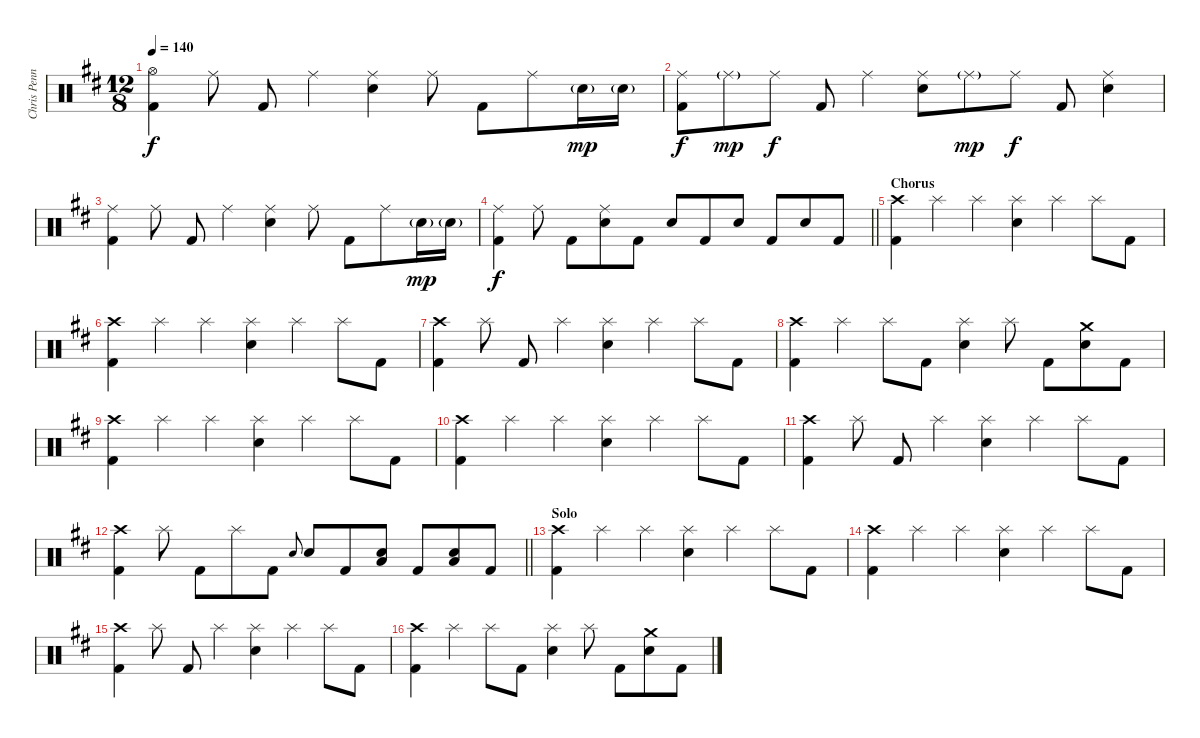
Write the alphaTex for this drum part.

\track ("Chris Pennie/Taylor Hawkins - Drums" "Chris Penn") {instrument percussion}
\staff {score}
\articulation defaults
\ts (12 8)
\tempo 140
\clef neutral
\ks bminor
("Hi-Hat (open)" "Kick (hit) 2").4{dy f} "Ride (middle)".8 "Kick (hit) 2".8 "Ride (middle)".4 ("Ride (middle)" "Electric Snare (hit)").4 "Ride (middle)".8 "Kick (hit) 2".8 "Ride (middle)".8 "Electric Snare (hit)"{g}.16{dy mp} "Electric Snare (hit)"{g}.16 |
("Ride (middle)" "Kick (hit) 2").8{dy f} "Ride (middle)"{g}.8{dy mp} "Ride (middle)".8{dy f} "Kick (hit) 2".8 "Ride (middle)".4 ("Ride (middle)" "Electric Snare (hit)").8 "Ride (middle)"{g}.8{dy mp} "Ride (middle)".8{dy f} "Kick (hit) 2".8 ("Ride (middle)" "Electric Snare (hit)").4 |
("Ride (middle)" "Kick (hit) 2").4 "Ride (middle)".8 "Kick (hit) 2".8 "Ride (middle)".4 ("Ride (middle)" "Electric Snare (hit)").4 "Ride (middle)".8 "Kick (hit) 2".8 "Ride (middle)".8 "Electric Snare (hit)"{g}.16{dy mp} "Electric Snare (hit)"{g}.16 |
\barLineRight lightlight
("Ride (middle)" "Kick (hit) 2").4{dy f} "Ride (middle)".8 "Kick (hit) 2".8 ("Ride (middle)" "Electric Snare (hit)").8 "Kick (hit) 2".8 "Electric Snare (hit)".8 "Kick (hit) 2".8 "Electric Snare (hit)".8 "Kick (hit) 2".8 "Electric Snare (hit)".8 "Kick (hit) 2".8 |
\section ("" "Chorus")
("Crash high (hit)" "Kick (hit) 2").4 "Splash (hit)".4 "Splash (hit)".4 ("Splash (hit)" "Electric Snare (hit)").4 "Splash (hit)".4 "Splash (hit)".8 "Kick (hit) 2".8 |
("Crash high (hit)" "Kick (hit) 2").4 "Splash (hit)".4 "Splash (hit)".4 ("Splash (hit)" "Electric Snare (hit)").4 "Splash (hit)".4 "Splash (hit)".8 "Kick (hit) 2".8 |
("Crash high (hit)" "Kick (hit) 2").4 "Splash (hit)".8 "Kick (hit) 2".8 "Splash (hit)".4 ("Splash (hit)" "Electric Snare (hit)").4 "Splash (hit)".4 "Splash (hit)".8 "Kick (hit) 2".8 |
("Crash high (hit)" "Kick (hit) 2").4 "Splash (hit)".4 "Splash (hit)".8 "Kick (hit) 2".8 ("Splash (hit)" "Electric Snare (hit)").4 "Splash (hit)".8 "Kick (hit) 2".8 ("Crash medium (hit)" "Electric Snare (hit)").8 "Kick (hit) 2".8 |
("Crash high (hit)" "Kick (hit) 2").4 "Splash (hit)".4 "Splash (hit)".4 ("Splash (hit)" "Electric Snare (hit)").4 "Splash (hit)".4 "Splash (hit)".8 "Kick (hit) 2".8 |
("Crash high (hit)" "Kick (hit) 2").4 "Splash (hit)".4 "Splash (hit)".4 ("Splash (hit)" "Electric Snare (hit)").4 "Splash (hit)".4 "Splash (hit)".8 "Kick (hit) 2".8 |
("Crash high (hit)" "Kick (hit) 2").4 "Splash (hit)".8 "Kick (hit) 2".8 "Splash (hit)".4 ("Splash (hit)" "Electric Snare (hit)").4 "Splash (hit)".4 "Splash (hit)".8 "Kick (hit) 2".8 |
\barLineRight lightlight
("Crash high (hit)" "Kick (hit) 2").4 "Splash (hit)".8 "Kick (hit) 2".8 "Splash (hit)".8 "Kick (hit) 2".8 "Electric Snare (hit)".8{gr onbeat} "Electric Snare (hit)".8 "Kick (hit) 2".8 ("Electric Snare (hit)" "Low Tom (hit)").8 "Kick (hit) 2".8 ("Electric Snare (hit)" "Low Floor Tom (hit)").8 "Kick (hit) 2".8 |
\section ("" "Solo")
("Crash high (hit)" "Kick (hit) 2").4 "Splash (hit)".4 "Splash (hit)".4 ("Splash (hit)" "Electric Snare (hit)").4 "Splash (hit)".4 "Splash (hit)".8 "Kick (hit) 2".8 |
("Crash high (hit)" "Kick (hit) 2").4 "Splash (hit)".4 "Splash (hit)".4 ("Splash (hit)" "Electric Snare (hit)").4 "Splash (hit)".4 "Splash (hit)".8 "Kick (hit) 2".8 |
("Crash high (hit)" "Kick (hit) 2").4 "Splash (hit)".8 "Kick (hit) 2".8 "Splash (hit)".4 ("Splash (hit)" "Electric Snare (hit)").4 "Splash (hit)".4 "Splash (hit)".8 "Kick (hit) 2".8 |
("Crash high (hit)" "Kick (hit) 2").4 "Splash (hit)".4 "Splash (hit)".8 "Kick (hit) 2".8 ("Splash (hit)" "Electric Snare (hit)").4 "Splash (hit)".8 "Kick (hit) 2".8 ("Crash medium (hit)" "Electric Snare (hit)").8 "Kick (hit) 2".8
